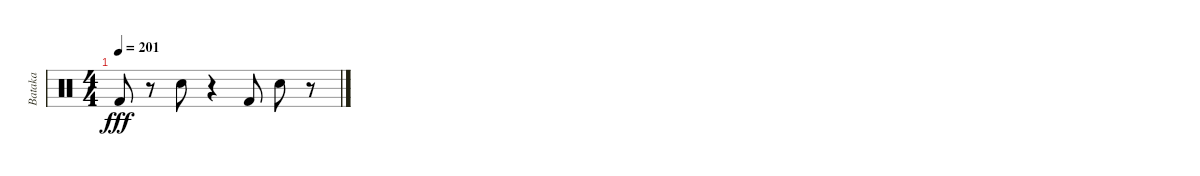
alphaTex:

\track ("Bataka" "Bataka") {instrument percussion}
\staff {score}
\articulation defaults
\ts (4 4)
\tempo 201
\clef neutral
\ks c "Kick (hit) 2".8{dy fff volume 3}
r.8 "Electric Snare (hit)".8{volume 2} r.4 "Kick (hit) 2".8{volume 2} "Electric Snare (hit)".8{volume 2} r.8
